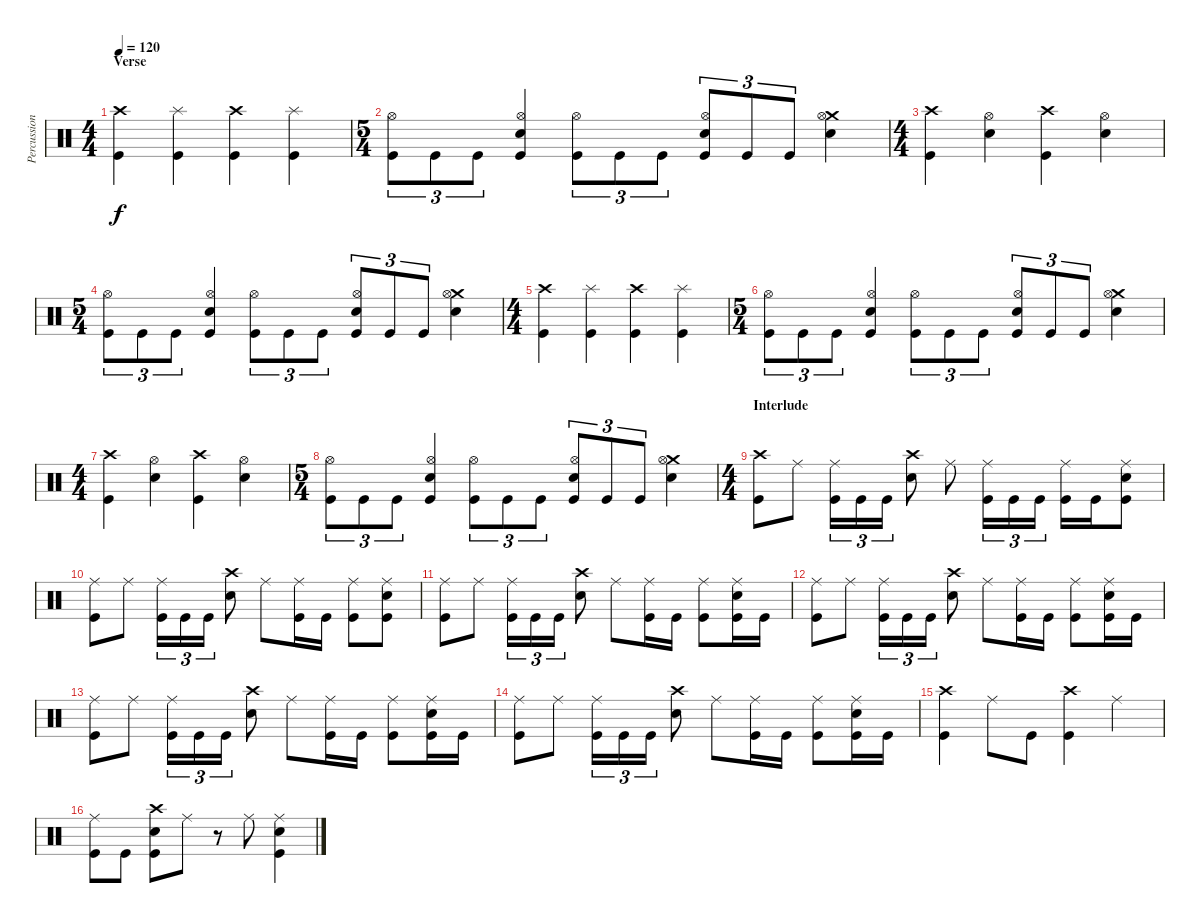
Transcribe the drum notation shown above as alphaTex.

\track ("Percussion" "Percussion") {instrument percussion}
\staff {score}
\articulation defaults
\ts (4 4)
\section ("" "Verse")
\tempo 120
\clef neutral
\ks c
("Crash high (hit)" "Kick (hit)").4{dy f} ("Splash (hit)" "Kick (hit)").4 ("Crash high (hit)" "Kick (hit)").4 ("Splash (hit)" "Kick (hit)").4 |
\ts (5 4)
("Hi-Hat (open)" "Kick (hit)").8{tu (3 2)} "Kick (hit)".8{tu (3 2)} "Kick (hit)".8{tu (3 2)} ("Hi-Hat (open)" "Snare (hit) 2" "Kick (hit)").4 ("Hi-Hat (open)" "Kick (hit)").8{tu (3 2)} "Kick (hit)".8{tu (3 2)} "Kick (hit)".8{tu (3 2)} ("Hi-Hat (open)" "Snare (hit) 2" "Kick (hit)").8{tu (3 2)} "Kick (hit)".8{tu (3 2)} "Kick (hit)".8{tu (3 2)} ("Crash medium (hit)" "Hi-Hat (open)" "Snare (hit) 2").4 |
\ts (4 4)
("Crash high (hit)" "Kick (hit)").4 ("Hi-Hat (open)" "Snare (hit) 2").4 ("Crash high (hit)" "Kick (hit)").4 ("Hi-Hat (open)" "Snare (hit) 2").4 |
\ts (5 4)
("Hi-Hat (open)" "Kick (hit)").8{tu (3 2)} "Kick (hit)".8{tu (3 2)} "Kick (hit)".8{tu (3 2)} ("Hi-Hat (open)" "Snare (hit) 2" "Kick (hit)").4 ("Hi-Hat (open)" "Kick (hit)").8{tu (3 2)} "Kick (hit)".8{tu (3 2)} "Kick (hit)".8{tu (3 2)} ("Hi-Hat (open)" "Snare (hit) 2" "Kick (hit)").8{tu (3 2)} "Kick (hit)".8{tu (3 2)} "Kick (hit)".8{tu (3 2)} ("Crash medium (hit)" "Hi-Hat (open)" "Snare (hit) 2").4 |
\ts (4 4)
("Crash high (hit)" "Kick (hit)").4 ("Splash (hit)" "Kick (hit)").4 ("Crash high (hit)" "Kick (hit)").4 ("Splash (hit)" "Kick (hit)").4 |
\ts (5 4)
("Hi-Hat (open)" "Kick (hit)").8{tu (3 2)} "Kick (hit)".8{tu (3 2)} "Kick (hit)".8{tu (3 2)} ("Hi-Hat (open)" "Snare (hit) 2" "Kick (hit)").4 ("Hi-Hat (open)" "Kick (hit)").8{tu (3 2)} "Kick (hit)".8{tu (3 2)} "Kick (hit)".8{tu (3 2)} ("Hi-Hat (open)" "Snare (hit) 2" "Kick (hit)").8{tu (3 2)} "Kick (hit)".8{tu (3 2)} "Kick (hit)".8{tu (3 2)} ("Crash medium (hit)" "Hi-Hat (open)" "Snare (hit) 2").4 |
\ts (4 4)
("Crash high (hit)" "Kick (hit)").4 ("Hi-Hat (open)" "Snare (hit) 2").4 ("Crash high (hit)" "Kick (hit)").4 ("Hi-Hat (open)" "Snare (hit) 2").4 |
\ts (5 4)
("Hi-Hat (open)" "Kick (hit)").8{tu (3 2)} "Kick (hit)".8{tu (3 2)} "Kick (hit)".8{tu (3 2)} ("Hi-Hat (open)" "Snare (hit) 2" "Kick (hit)").4 ("Hi-Hat (open)" "Kick (hit)").8{tu (3 2)} "Kick (hit)".8{tu (3 2)} "Kick (hit)".8{tu (3 2)} ("Hi-Hat (open)" "Snare (hit) 2" "Kick (hit)").8{tu (3 2)} "Kick (hit)".8{tu (3 2)} "Kick (hit)".8{tu (3 2)} ("Crash medium (hit)" "Hi-Hat (open)" "Snare (hit) 2").4 |
\ts (4 4)
\section ("" "Interlude")
("Crash high (hit)" "Kick (hit)").8 "Ride (middle)".8 ("Ride (middle)" "Kick (hit)").16{tu (3 2)} "Kick (hit)".16{tu (3 2)} "Kick (hit)".16{tu (3 2)} ("Crash high (hit)" "Snare (hit) 2").8 "Ride (middle)".8 ("Ride (middle)" "Kick (hit)").16{tu (3 2)} "Kick (hit)".16{tu (3 2)} "Kick (hit)".16{tu (3 2)} ("Ride (middle)" "Kick (hit)").16 "Kick (hit)".16 ("Ride (middle)" "Snare (hit) 2" "Kick (hit)").8 |
("Ride (middle)" "Kick (hit)").8 "Ride (middle)".8 ("Ride (middle)" "Kick (hit)").16{tu (3 2)} "Kick (hit)".16{tu (3 2)} "Kick (hit)".16{tu (3 2)} ("Crash high (hit)" "Snare (hit) 2").8 "Ride (middle)".8 ("Ride (middle)" "Kick (hit)").16 "Kick (hit)".16 ("Ride (middle)" "Kick (hit)").8 ("Ride (middle)" "Snare (hit) 2" "Kick (hit)").8 |
("Ride (middle)" "Kick (hit)").8 "Ride (middle)".8 ("Ride (middle)" "Kick (hit)").16{tu (3 2)} "Kick (hit)".16{tu (3 2)} "Kick (hit)".16{tu (3 2)} ("Crash high (hit)" "Snare (hit) 2").8 "Ride (middle)".8 ("Ride (middle)" "Kick (hit)").16 "Kick (hit)".16 ("Ride (middle)" "Kick (hit)").8 ("Ride (middle)" "Snare (hit) 2" "Kick (hit)").16 "Kick (hit)".16 |
("Ride (middle)" "Kick (hit)").8 "Ride (middle)".8 ("Ride (middle)" "Kick (hit)").16{tu (3 2)} "Kick (hit)".16{tu (3 2)} "Kick (hit)".16{tu (3 2)} ("Crash high (hit)" "Snare (hit) 2").8 "Ride (middle)".8 ("Ride (middle)" "Kick (hit)").16 "Kick (hit)".16 ("Ride (middle)" "Kick (hit)").8 ("Ride (middle)" "Snare (hit) 2" "Kick (hit)").16 "Kick (hit)".16 |
("Ride (middle)" "Kick (hit)").8 "Ride (middle)".8 ("Ride (middle)" "Kick (hit)").16{tu (3 2)} "Kick (hit)".16{tu (3 2)} "Kick (hit)".16{tu (3 2)} ("Crash high (hit)" "Snare (hit) 2").8 "Ride (middle)".8 ("Ride (middle)" "Kick (hit)").16 "Kick (hit)".16 ("Ride (middle)" "Kick (hit)").8 ("Ride (middle)" "Snare (hit) 2" "Kick (hit)").16 "Kick (hit)".16 |
("Ride (middle)" "Kick (hit)").8 "Ride (middle)".8 ("Ride (middle)" "Kick (hit)").16{tu (3 2)} "Kick (hit)".16{tu (3 2)} "Kick (hit)".16{tu (3 2)} ("Crash high (hit)" "Snare (hit) 2").8 "Ride (middle)".8 ("Ride (middle)" "Kick (hit)").16 "Kick (hit)".16 ("Ride (middle)" "Kick (hit)").8 ("Ride (middle)" "Snare (hit) 2" "Kick (hit)").16 "Kick (hit)".16 |
("Crash high (hit)" "Kick (hit)").4 "Ride (middle)".8 "Kick (hit)".8 ("Crash high (hit)" "Kick (hit)").4 "Ride (middle)".4 |
("Ride (middle)" "Kick (hit)").8 "Kick (hit)".8 ("Crash high (hit)" "Snare (hit) 2" "Kick (hit)").8 "Ride (middle)".8 r.8 "Ride (middle)".8 ("Ride (middle)" "Snare (hit) 2" "Kick (hit)").4
